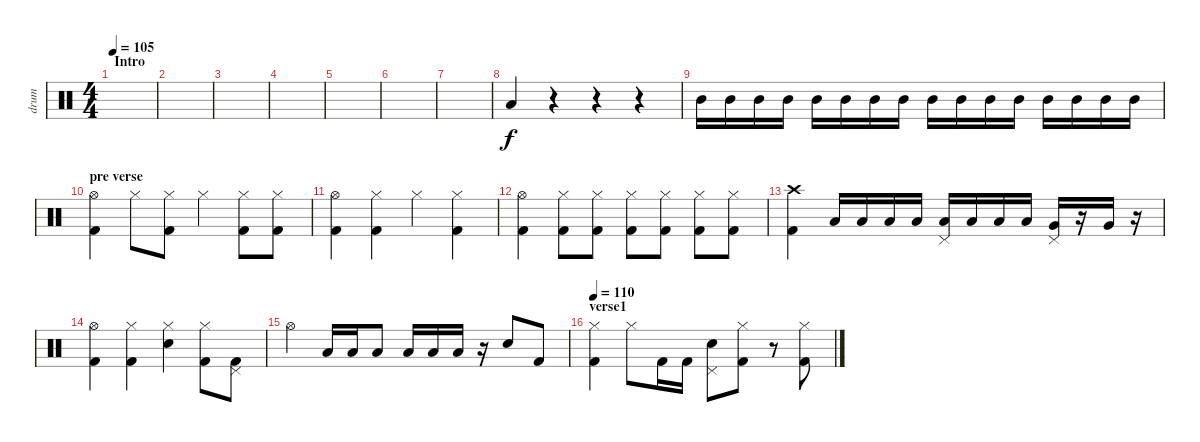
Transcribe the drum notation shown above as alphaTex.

\track ("drum" "drum") {instrument percussion}
\staff {score}
\articulation defaults
\ts (4 4)
\section ("" "Intro")
\tempo 105
\clef neutral
\ks c
|
|
|
|
|
|
|
"Low Tom (hit)".4 r.4 r.4 r.4 |
"Mid Tom (hit)".16 "Mid Tom (hit)".16 "Mid Tom (hit)".16 "Mid Tom (hit)".16 "Mid Tom (hit)".16 "Mid Tom (hit)".16 "Mid Tom (hit)".16 "Mid Tom (hit)".16 "Mid Tom (hit)".16 "Mid Tom (hit)".16 "Mid Tom (hit)".16 "Mid Tom (hit)".16 "Mid Tom (hit)".16 "Mid Tom (hit)".16 "Mid Tom (hit)".16 "Mid Tom (hit)".16 |
\section ("" "pre verse")
("Hi-Hat (open)" "Kick (hit) 2").4 "Hi-Hat (closed)".8 ("Hi-Hat (closed)" "Kick (hit) 2").8 "Hi-Hat (closed)".4 ("Hi-Hat (closed)" "Kick (hit) 2").8 ("Hi-Hat (closed)" "Kick (hit) 2").8 |
("Hi-Hat (open)" "Kick (hit) 2").4 ("Hi-Hat (closed)" "Kick (hit) 2").4 "Hi-Hat (closed)".4 ("Hi-Hat (closed)" "Kick (hit) 2").4 |
("Hi-Hat (open)" "Kick (hit) 2").4 ("Hi-Hat (closed)" "Kick (hit) 2").8 ("Hi-Hat (closed)" "Kick (hit) 2").8 ("Hi-Hat (closed)" "Kick (hit) 2").8 ("Hi-Hat (closed)" "Kick (hit) 2").8 ("Hi-Hat (closed)" "Kick (hit) 2").8 ("Hi-Hat (closed)" "Kick (hit) 2").8 |
("Crash high (hit)" "Kick (hit) 2").4 "Low Tom (hit)".16 "Low Tom (hit)".16 "Low Tom (hit)".16 "Low Tom (hit)".16 ("Pedal Hi-Hat (hit)" "Low Floor Tom (hit)").16 "Low Floor Tom (hit)".16 "Low Floor Tom (hit)".16 "Low Floor Tom (hit)".16 ("Pedal Hi-Hat (hit)" "Very Low Tom (hit)").16 r.16 "Very Low Tom (hit)".16 r.16 |
("Hi-Hat (open)" "Kick (hit) 2").4 ("Hi-Hat (closed)" "Kick (hit) 2").4 ("Hi-Hat (closed)" "Electric Snare (hit)").4 ("Hi-Hat (closed)" "Kick (hit) 2").8 ("Pedal Hi-Hat (hit)" "Kick (hit) 2").8 |
"Hi-Hat (open)".4 "Low Tom (hit)".16 "Low Tom (hit)".16 "Low Tom (hit)".8 "Low Floor Tom (hit)".16 "Low Floor Tom (hit)".16 "Low Floor Tom (hit)".16 r.16 "Electric Snare (hit)".8 "Kick (hit) 2".8 |
\section ("" "verse1")
\tempo 110
("Hi-Hat (closed)" "Kick (hit) 2").4 "Hi-Hat (closed)".8 "Kick (hit) 2".16 "Kick (hit) 2".16 ("Pedal Hi-Hat (hit)" "Electric Snare (hit)").8 ("Hi-Hat (closed)" "Kick (hit) 2").8 r.8 ("Hi-Hat (closed)" "Kick (hit) 2").8
